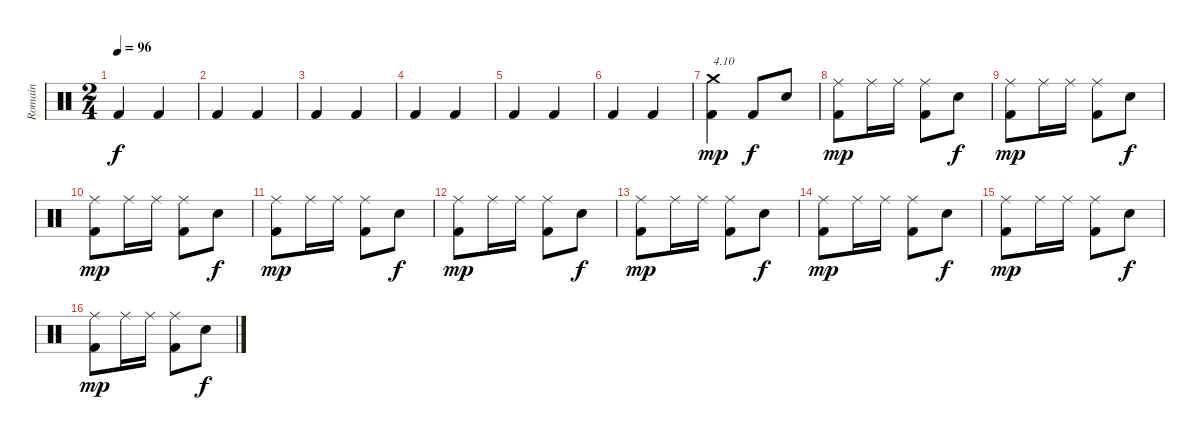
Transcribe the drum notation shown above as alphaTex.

\track ("Romain" "Romain") {instrument percussion}
\staff {score}
\articulation defaults
\ts (2 4)
\tempo 96
\clef neutral
\ks c "Kick (hit) 2".4{dy f} "Kick (hit) 2".4
|
"Kick (hit) 2".4 "Kick (hit) 2".4 |
"Kick (hit) 2".4 "Kick (hit) 2".4 |
"Kick (hit) 2".4 "Kick (hit) 2".4 |
"Kick (hit) 2".4 "Kick (hit) 2".4 |
"Kick (hit) 2".4 "Kick (hit) 2".4 |
("Kick (hit) 2" "Crash medium (hit)").4{txt "4.10" dy mp} "Kick (hit) 2".8{dy f} "Electric Snare (hit)".8 |
("Kick (hit) 2" "Ride (middle)").8{dy mp} "Ride (middle)".16 "Ride (middle)".16 ("Kick (hit) 2" "Ride (middle)").8 "Electric Snare (hit)".8{dy f} |
("Kick (hit) 2" "Ride (middle)").8{dy mp} "Ride (middle)".16 "Ride (middle)".16 ("Kick (hit) 2" "Ride (middle)").8 "Electric Snare (hit)".8{dy f} |
("Kick (hit) 2" "Ride (middle)").8{dy mp} "Ride (middle)".16 "Ride (middle)".16 ("Kick (hit) 2" "Ride (middle)").8 "Electric Snare (hit)".8{dy f} |
("Kick (hit) 2" "Ride (middle)").8{dy mp} "Ride (middle)".16 "Ride (middle)".16 ("Kick (hit) 2" "Ride (middle)").8 "Electric Snare (hit)".8{dy f} |
("Kick (hit) 2" "Ride (middle)").8{dy mp} "Ride (middle)".16 "Ride (middle)".16 ("Kick (hit) 2" "Ride (middle)").8 "Electric Snare (hit)".8{dy f} |
("Kick (hit) 2" "Ride (middle)").8{dy mp} "Ride (middle)".16 "Ride (middle)".16 ("Kick (hit) 2" "Ride (middle)").8 "Electric Snare (hit)".8{dy f} |
("Kick (hit) 2" "Ride (middle)").8{dy mp} "Ride (middle)".16 "Ride (middle)".16 ("Kick (hit) 2" "Ride (middle)").8 "Electric Snare (hit)".8{dy f} |
("Kick (hit) 2" "Ride (middle)").8{dy mp} "Ride (middle)".16 "Ride (middle)".16 ("Kick (hit) 2" "Ride (middle)").8 "Electric Snare (hit)".8{dy f} |
("Kick (hit) 2" "Ride (middle)").8{dy mp} "Ride (middle)".16 "Ride (middle)".16 ("Kick (hit) 2" "Ride (middle)").8 "Electric Snare (hit)".8{dy f}
